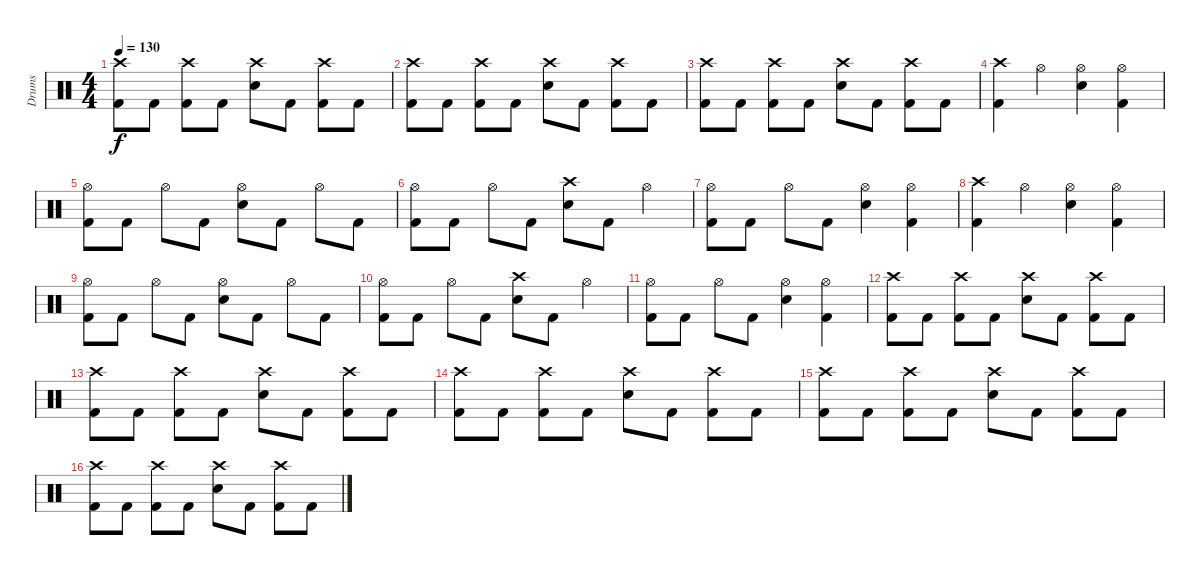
\track ("Drums" "Drums") {instrument percussion}
\staff {score}
\articulation defaults
\ts (4 4)
\tempo 130
\clef neutral
\ks c
("Crash high (hit)" "Kick (hit) 2").8{dy f} "Kick (hit) 2".8 ("Crash high (hit)" "Kick (hit) 2").8 "Kick (hit) 2".8 ("Crash high (hit)" "Snare (hit) 2").8 "Kick (hit) 2".8 ("Crash high (hit)" "Kick (hit) 2").8 "Kick (hit) 2".8 |
("Crash high (hit)" "Kick (hit) 2").8 "Kick (hit) 2".8 ("Crash high (hit)" "Kick (hit) 2").8 "Kick (hit) 2".8 ("Crash high (hit)" "Snare (hit) 2").8 "Kick (hit) 2".8 ("Crash high (hit)" "Kick (hit) 2").8 "Kick (hit) 2".8 |
("Crash high (hit)" "Kick (hit) 2").8 "Kick (hit) 2".8 ("Crash high (hit)" "Kick (hit) 2").8 "Kick (hit) 2".8 ("Crash high (hit)" "Snare (hit) 2").8 "Kick (hit) 2".8 ("Crash high (hit)" "Kick (hit) 2").8 "Kick (hit) 2".8 |
("Crash high (hit)" "Kick (hit) 2").4 "Hi-Hat (open)".4 ("Hi-Hat (open)" "Snare (hit) 2").4 ("Hi-Hat (open)" "Kick (hit) 2").4 |
("Hi-Hat (open)" "Kick (hit) 2").8 "Kick (hit) 2".8 "Hi-Hat (open)".8 "Kick (hit) 2".8 ("Hi-Hat (open)" "Snare (hit) 2").8 "Kick (hit) 2".8 "Hi-Hat (open)".8 "Kick (hit) 2".8 |
("Hi-Hat (open)" "Kick (hit) 2").8 "Kick (hit) 2".8 "Hi-Hat (open)".8 "Kick (hit) 2".8 ("Crash high (hit)" "Snare (hit) 2").8 "Kick (hit) 2".8 "Hi-Hat (open)".4 |
("Hi-Hat (open)" "Kick (hit) 2").8 "Kick (hit) 2".8 "Hi-Hat (open)".8 "Kick (hit) 2".8 ("Hi-Hat (open)" "Snare (hit) 2").4 ("Hi-Hat (open)" "Kick (hit) 2").4 |
("Crash high (hit)" "Kick (hit) 2").4 "Hi-Hat (open)".4 ("Hi-Hat (open)" "Snare (hit) 2").4 ("Hi-Hat (open)" "Kick (hit) 2").4 |
("Hi-Hat (open)" "Kick (hit) 2").8 "Kick (hit) 2".8 "Hi-Hat (open)".8 "Kick (hit) 2".8 ("Hi-Hat (open)" "Snare (hit) 2").8 "Kick (hit) 2".8 "Hi-Hat (open)".8 "Kick (hit) 2".8 |
("Hi-Hat (open)" "Kick (hit) 2").8 "Kick (hit) 2".8 "Hi-Hat (open)".8 "Kick (hit) 2".8 ("Crash high (hit)" "Snare (hit) 2").8 "Kick (hit) 2".8 "Hi-Hat (open)".4 |
("Hi-Hat (open)" "Kick (hit) 2").8 "Kick (hit) 2".8 "Hi-Hat (open)".8 "Kick (hit) 2".8 ("Hi-Hat (open)" "Snare (hit) 2").4 ("Hi-Hat (open)" "Kick (hit) 2").4 |
("Crash high (hit)" "Kick (hit) 2").8 "Kick (hit) 2".8 ("Crash high (hit)" "Kick (hit) 2").8 "Kick (hit) 2".8 ("Crash high (hit)" "Snare (hit) 2").8 "Kick (hit) 2".8 ("Crash high (hit)" "Kick (hit) 2").8 "Kick (hit) 2".8 |
("Crash high (hit)" "Kick (hit) 2").8 "Kick (hit) 2".8 ("Crash high (hit)" "Kick (hit) 2").8 "Kick (hit) 2".8 ("Crash high (hit)" "Snare (hit) 2").8 "Kick (hit) 2".8 ("Crash high (hit)" "Kick (hit) 2").8 "Kick (hit) 2".8 |
("Crash high (hit)" "Kick (hit) 2").8 "Kick (hit) 2".8 ("Crash high (hit)" "Kick (hit) 2").8 "Kick (hit) 2".8 ("Crash high (hit)" "Snare (hit) 2").8 "Kick (hit) 2".8 ("Crash high (hit)" "Kick (hit) 2").8 "Kick (hit) 2".8 |
("Crash high (hit)" "Kick (hit) 2").8 "Kick (hit) 2".8 ("Crash high (hit)" "Kick (hit) 2").8 "Kick (hit) 2".8 ("Crash high (hit)" "Snare (hit) 2").8 "Kick (hit) 2".8 ("Crash high (hit)" "Kick (hit) 2").8 "Kick (hit) 2".8 |
("Crash high (hit)" "Kick (hit) 2").8 "Kick (hit) 2".8 ("Crash high (hit)" "Kick (hit) 2").8 "Kick (hit) 2".8 ("Crash high (hit)" "Snare (hit) 2").8 "Kick (hit) 2".8 ("Crash high (hit)" "Kick (hit) 2").8 "Kick (hit) 2".8
